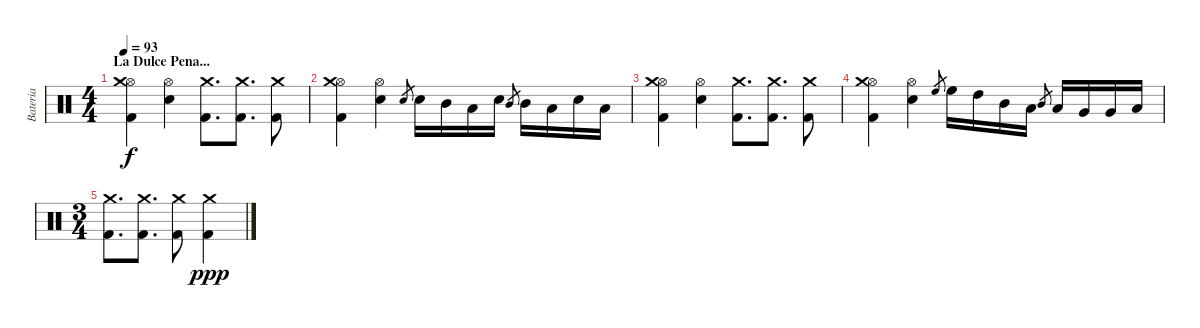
\track ("Bateria" "Bateria") {instrument percussion}
\staff {score}
\articulation defaults
\ts (4 4)
\section ("" "La Dulce Pena...")
\tempo 93
\clef neutral
\ks c
("Kick (hit) 2" "Hi-Hat (open)" "Crash medium (hit)").4{dy f} ("Hi-Hat (open)" "Snare (hit) 2").4 ("Kick (hit) 2" "Crash medium (hit)").8{d} ("Kick (hit) 2" "Crash medium (hit)").8{d} ("Kick (hit) 2" "Crash medium (hit)").8 |
("Kick (hit) 2" "Hi-Hat (open)" "Crash medium (hit)").4 ("Hi-Hat (open)" "Snare (hit) 2").4 "Snare (hit) 2".8{gr} "Snare (hit) 2".16 "Mid Tom (hit)".16 "Low Tom (hit)".16 "Snare (hit) 2".16 "Mid Tom (hit)".8{gr} "Mid Tom (hit)".16 "Low Tom (hit)".16 "Snare (hit) 2".16 "Low Tom (hit)".16 |
("Kick (hit) 2" "Hi-Hat (open)" "Crash medium (hit)").4 ("Hi-Hat (open)" "Snare (hit) 2").4 ("Kick (hit) 2" "Crash medium (hit)").8{d} ("Kick (hit) 2" "Crash medium (hit)").8{d} ("Kick (hit) 2" "Crash medium (hit)").8 |
("Kick (hit) 2" "Hi-Hat (open)" "Crash medium (hit)").4 ("Hi-Hat (open)" "Snare (hit) 2").4 "High Floor Tom (hit)".8{gr} "High Floor Tom (hit)".16 "High Tom (hit)".16 "Mid Tom (hit)".16 "Low Tom (hit)".16 "Mid Tom (hit)".8{gr} "Low Tom (hit)".16 "Very Low Tom (hit)".16 "Very Low Tom (hit)".16 "Low Floor Tom (hit)".16 |
\ts (3 4)
("Kick (hit) 2" "Crash medium (hit)").8{d} ("Kick (hit) 2" "Crash medium (hit)").8{d} ("Kick (hit) 2" "Crash medium (hit)").8 ("Kick (hit) 2" "Crash medium (hit)").4{dy ppp}
